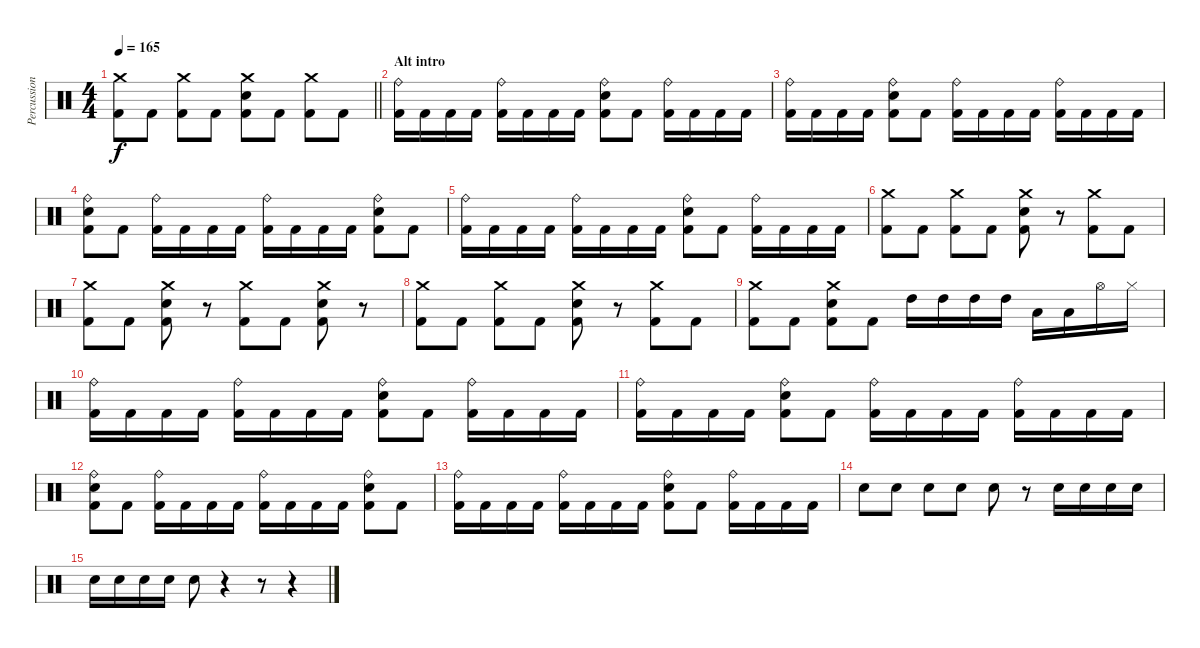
\track ("Percussion" "Percussion") {instrument percussion}
\staff {score}
\articulation defaults
\ts (4 4)
\tempo 165
\clef neutral
\barLineRight lightlight
\ks c
("Crash medium (hit)" "Kick (hit) 2").8{dy f} "Kick (hit) 2".8 ("Crash medium (hit)" "Kick (hit) 2").8 "Kick (hit) 2".8 ("Crash medium (hit)" "Electric Snare (hit)" "Kick (hit) 2").8 "Kick (hit) 2".8 ("Crash medium (hit)" "Kick (hit) 2").8 "Kick (hit) 2".8 |
\section ("" "Alt intro")
("Ride (bell)" "Kick (hit) 2").16 "Kick (hit) 2".16 "Kick (hit) 2".16 "Kick (hit) 2".16 ("Ride (bell)" "Kick (hit) 2").16 "Kick (hit) 2".16 "Kick (hit) 2".16 "Kick (hit) 2".16 ("Ride (bell)" "Electric Snare (hit)" "Kick (hit) 2").8 "Kick (hit) 2".8 ("Ride (bell)" "Kick (hit) 2").16 "Kick (hit) 2".16 "Kick (hit) 2".16 "Kick (hit) 2".16 |
("Ride (bell)" "Kick (hit) 2").16 "Kick (hit) 2".16 "Kick (hit) 2".16 "Kick (hit) 2".16 ("Ride (bell)" "Electric Snare (hit)" "Kick (hit) 2").8 "Kick (hit) 2".8 ("Ride (bell)" "Kick (hit) 2").16 "Kick (hit) 2".16 "Kick (hit) 2".16 "Kick (hit) 2".16 ("Ride (bell)" "Kick (hit) 2").16 "Kick (hit) 2".16 "Kick (hit) 2".16 "Kick (hit) 2".16 |
("Ride (bell)" "Electric Snare (hit)" "Kick (hit) 2").8 "Kick (hit) 2".8 ("Ride (bell)" "Kick (hit) 2").16 "Kick (hit) 2".16 "Kick (hit) 2".16 "Kick (hit) 2".16 ("Ride (bell)" "Kick (hit) 2").16 "Kick (hit) 2".16 "Kick (hit) 2".16 "Kick (hit) 2".16 ("Ride (bell)" "Electric Snare (hit)" "Kick (hit) 2").8 "Kick (hit) 2".8 |
("Ride (bell)" "Kick (hit) 2").16 "Kick (hit) 2".16 "Kick (hit) 2".16 "Kick (hit) 2".16 ("Ride (bell)" "Kick (hit) 2").16 "Kick (hit) 2".16 "Kick (hit) 2".16 "Kick (hit) 2".16 ("Ride (bell)" "Electric Snare (hit)" "Kick (hit) 2").8 "Kick (hit) 2".8 ("Ride (bell)" "Kick (hit) 2").16 "Kick (hit) 2".16 "Kick (hit) 2".16 "Kick (hit) 2".16 |
("Crash medium (hit)" "Kick (hit) 2").8 "Kick (hit) 2".8 ("Crash medium (hit)" "Kick (hit) 2").8 "Kick (hit) 2".8 ("Crash medium (hit)" "Electric Snare (hit)" "Kick (hit) 2").8 r.8 ("Crash medium (hit)" "Kick (hit) 2").8 "Kick (hit) 2".8 |
("Crash medium (hit)" "Kick (hit) 2").8 "Kick (hit) 2".8 ("Crash medium (hit)" "Electric Snare (hit)" "Kick (hit) 2").8 r.8 ("Crash medium (hit)" "Kick (hit) 2").8 "Kick (hit) 2".8 ("Crash medium (hit)" "Electric Snare (hit)" "Kick (hit) 2").8 r.8 |
("Crash medium (hit)" "Kick (hit) 2").8 "Kick (hit) 2".8 ("Crash medium (hit)" "Kick (hit) 2").8 "Kick (hit) 2".8 ("Crash medium (hit)" "Electric Snare (hit)" "Kick (hit) 2").8 r.8 ("Crash medium (hit)" "Kick (hit) 2").8 "Kick (hit) 2".8 |
("Crash medium (hit)" "Kick (hit) 2").8 "Kick (hit) 2".8 ("Crash medium (hit)" "Electric Snare (hit)" "Kick (hit) 2").8 "Kick (hit) 2".8 "High Tom (hit)".16 "High Tom (hit)".16 "High Tom (hit)".16 "High Tom (hit)".16 "Low Tom (hit)".16 "Low Tom (hit)".16 "Hi-Hat (open)".16 "Hi-Hat (closed)".16 |
("Ride (bell)" "Kick (hit) 2").16 "Kick (hit) 2".16 "Kick (hit) 2".16 "Kick (hit) 2".16 ("Ride (bell)" "Kick (hit) 2").16 "Kick (hit) 2".16 "Kick (hit) 2".16 "Kick (hit) 2".16 ("Ride (bell)" "Electric Snare (hit)" "Kick (hit) 2").8 "Kick (hit) 2".8 ("Ride (bell)" "Kick (hit) 2").16 "Kick (hit) 2".16 "Kick (hit) 2".16 "Kick (hit) 2".16 |
("Ride (bell)" "Kick (hit) 2").16 "Kick (hit) 2".16 "Kick (hit) 2".16 "Kick (hit) 2".16 ("Ride (bell)" "Electric Snare (hit)" "Kick (hit) 2").8 "Kick (hit) 2".8 ("Ride (bell)" "Kick (hit) 2").16 "Kick (hit) 2".16 "Kick (hit) 2".16 "Kick (hit) 2".16 ("Ride (bell)" "Kick (hit) 2").16 "Kick (hit) 2".16 "Kick (hit) 2".16 "Kick (hit) 2".16 |
("Ride (bell)" "Electric Snare (hit)" "Kick (hit) 2").8 "Kick (hit) 2".8 ("Ride (bell)" "Kick (hit) 2").16 "Kick (hit) 2".16 "Kick (hit) 2".16 "Kick (hit) 2".16 ("Ride (bell)" "Kick (hit) 2").16 "Kick (hit) 2".16 "Kick (hit) 2".16 "Kick (hit) 2".16 ("Ride (bell)" "Electric Snare (hit)" "Kick (hit) 2").8 "Kick (hit) 2".8 |
("Ride (bell)" "Kick (hit) 2").16 "Kick (hit) 2".16 "Kick (hit) 2".16 "Kick (hit) 2".16 ("Ride (bell)" "Kick (hit) 2").16 "Kick (hit) 2".16 "Kick (hit) 2".16 "Kick (hit) 2".16 ("Ride (bell)" "Electric Snare (hit)" "Kick (hit) 2").8 "Kick (hit) 2".8 ("Ride (bell)" "Kick (hit) 2").16 "Kick (hit) 2".16 "Kick (hit) 2".16 "Kick (hit) 2".16 |
"Electric Snare (hit)".8 "Electric Snare (hit)".8 "Electric Snare (hit)".8 "Electric Snare (hit)".8 "Electric Snare (hit)".8 r.8 "Electric Snare (hit)".16 "Electric Snare (hit)".16 "Electric Snare (hit)".16 "Electric Snare (hit)".16 |
"Electric Snare (hit)".16 "Electric Snare (hit)".16 "Electric Snare (hit)".16 "Electric Snare (hit)".16 "Electric Snare (hit)".8 r.4 r.8 r.4
